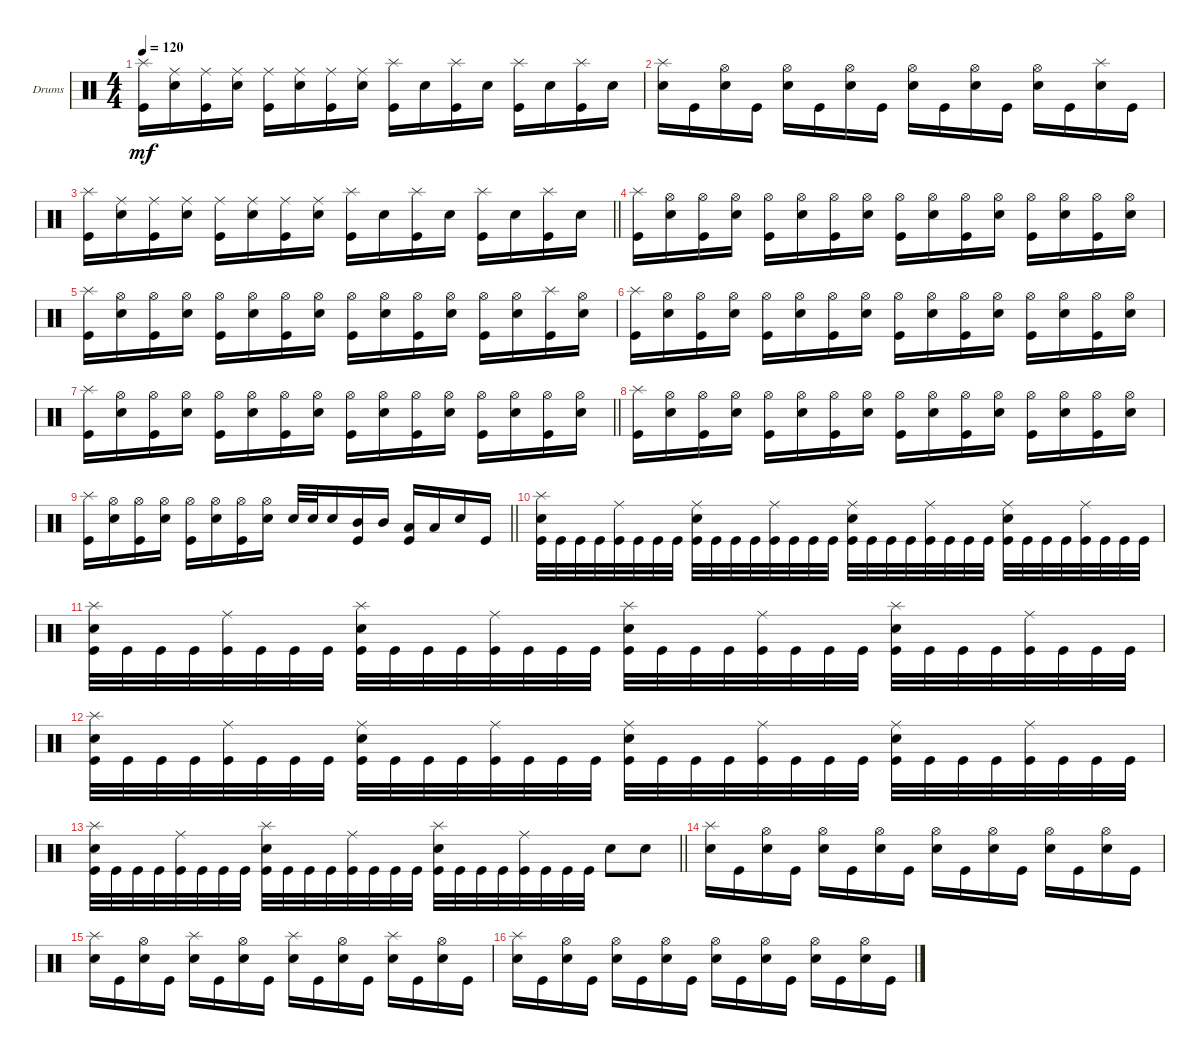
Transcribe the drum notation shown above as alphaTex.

\defaultSystemsLayout 4
\bracketExtendMode groupsimilarinstruments
\firstSystemTrackNameOrientation horizontal
\otherSystemsTrackNameOrientation horizontal
\track ("Drumkit" "Drums") {instrument percussion}
\staff {score}
\articulation defaults
\ts (4 4)
\tempo 120
\clef neutral
\ks c
("Kick (hit)" "Splash (hit)").16{dy mf} ("Snare (hit) 2" "Ride (middle)").16 ("Kick (hit)" "Ride (middle)").16 ("Snare (hit) 2" "Ride (middle)").16 ("Kick (hit)" "Ride (middle)").16 ("Snare (hit) 2" "Ride (middle)").16 ("Kick (hit)" "Ride (middle)").16 ("Snare (hit) 2" "Ride (middle)").16 ("Kick (hit)" "Splash (hit)").16 "Snare (hit) 2".16 ("Kick (hit)" "Splash (hit)").16 "Snare (hit) 2".16 ("Kick (hit)" "Splash (hit)").16 "Snare (hit) 2".16 ("Kick (hit)" "Splash (hit)").16 "Snare (hit) 2".16 |
("Snare (hit) 2" "Splash (hit)").16 "Kick (hit)".16 ("Snare (hit) 2" "Hi-Hat (open)").16 "Kick (hit)".16 ("Snare (hit) 2" "Hi-Hat (open)").16 "Kick (hit)".16 ("Snare (hit) 2" "Hi-Hat (open)").16 "Kick (hit)".16 ("Snare (hit) 2" "Hi-Hat (open)").16 "Kick (hit)".16 ("Snare (hit) 2" "Hi-Hat (open)").16 "Kick (hit)".16 ("Snare (hit) 2" "Hi-Hat (open)").16 "Kick (hit)".16 ("Snare (hit) 2" "Splash (hit)").16 "Kick (hit)".16 |
\barLineRight lightlight
("Kick (hit)" "Splash (hit)").16 ("Snare (hit) 2" "Ride (middle)").16 ("Kick (hit)" "Ride (middle)").16 ("Snare (hit) 2" "Ride (middle)").16 ("Kick (hit)" "Ride (middle)").16 ("Snare (hit) 2" "Ride (middle)").16 ("Kick (hit)" "Ride (middle)").16 ("Snare (hit) 2" "Ride (middle)").16 ("Kick (hit)" "Splash (hit)").16 "Snare (hit) 2".16 ("Kick (hit)" "Splash (hit)").16 "Snare (hit) 2".16 ("Kick (hit)" "Splash (hit)").16 "Snare (hit) 2".16 ("Kick (hit)" "Splash (hit)").16 "Snare (hit) 2".16 |
("Kick (hit)" "Splash (hit)").16 ("Snare (hit) 2" "Hi-Hat (open)").16 ("Kick (hit)" "Hi-Hat (open)").16 ("Snare (hit) 2" "Hi-Hat (open)").16 ("Kick (hit)" "Hi-Hat (open)").16 ("Snare (hit) 2" "Hi-Hat (open)").16 ("Kick (hit)" "Hi-Hat (open)").16 ("Snare (hit) 2" "Hi-Hat (open)").16 ("Kick (hit)" "Hi-Hat (open)").16 ("Snare (hit) 2" "Hi-Hat (open)").16 ("Kick (hit)" "Hi-Hat (open)").16 ("Snare (hit) 2" "Hi-Hat (open)").16 ("Kick (hit)" "Hi-Hat (open)").16 ("Snare (hit) 2" "Hi-Hat (open)").16 ("Kick (hit)" "Hi-Hat (open)").16 ("Snare (hit) 2" "Hi-Hat (open)").16 |
("Kick (hit)" "Splash (hit)").16 ("Snare (hit) 2" "Hi-Hat (open)").16 ("Kick (hit)" "Hi-Hat (open)").16 ("Snare (hit) 2" "Hi-Hat (open)").16 ("Kick (hit)" "Hi-Hat (open)").16 ("Snare (hit) 2" "Hi-Hat (open)").16 ("Kick (hit)" "Hi-Hat (open)").16 ("Snare (hit) 2" "Hi-Hat (open)").16 ("Kick (hit)" "Hi-Hat (open)").16 ("Snare (hit) 2" "Hi-Hat (open)").16 ("Kick (hit)" "Hi-Hat (open)").16 ("Snare (hit) 2" "Hi-Hat (open)").16 ("Kick (hit)" "Hi-Hat (open)").16 ("Snare (hit) 2" "Hi-Hat (open)").16 ("Kick (hit)" "Splash (hit)").16 ("Snare (hit) 2" "Hi-Hat (open)").16 |
("Kick (hit)" "Splash (hit)").16 ("Snare (hit) 2" "Hi-Hat (open)").16 ("Kick (hit)" "Hi-Hat (open)").16 ("Snare (hit) 2" "Hi-Hat (open)").16 ("Kick (hit)" "Hi-Hat (open)").16 ("Snare (hit) 2" "Hi-Hat (open)").16 ("Kick (hit)" "Hi-Hat (open)").16 ("Snare (hit) 2" "Hi-Hat (open)").16 ("Kick (hit)" "Hi-Hat (open)").16 ("Snare (hit) 2" "Hi-Hat (open)").16 ("Kick (hit)" "Hi-Hat (open)").16 ("Snare (hit) 2" "Hi-Hat (open)").16 ("Kick (hit)" "Hi-Hat (open)").16 ("Snare (hit) 2" "Hi-Hat (open)").16 ("Kick (hit)" "Hi-Hat (open)").16 ("Snare (hit) 2" "Hi-Hat (open)").16 |
\barLineRight lightlight
("Kick (hit)" "Splash (hit)").16 ("Snare (hit) 2" "Hi-Hat (open)").16 ("Kick (hit)" "Hi-Hat (open)").16 ("Snare (hit) 2" "Hi-Hat (open)").16 ("Kick (hit)" "Hi-Hat (open)").16 ("Snare (hit) 2" "Hi-Hat (open)").16 ("Kick (hit)" "Hi-Hat (open)").16 ("Snare (hit) 2" "Hi-Hat (open)").16 ("Kick (hit)" "Hi-Hat (open)").16 ("Snare (hit) 2" "Hi-Hat (open)").16 ("Kick (hit)" "Hi-Hat (open)").16 ("Snare (hit) 2" "Hi-Hat (open)").16 ("Kick (hit)" "Hi-Hat (open)").16 ("Snare (hit) 2" "Hi-Hat (open)").16 ("Kick (hit)" "Hi-Hat (open)").16 ("Snare (hit) 2" "Hi-Hat (open)").16 |
("Kick (hit)" "Splash (hit)").16 ("Snare (hit) 2" "Hi-Hat (open)").16 ("Kick (hit)" "Hi-Hat (open)").16 ("Snare (hit) 2" "Hi-Hat (open)").16 ("Kick (hit)" "Hi-Hat (open)").16 ("Snare (hit) 2" "Hi-Hat (open)").16 ("Kick (hit)" "Hi-Hat (open)").16 ("Snare (hit) 2" "Hi-Hat (open)").16 ("Kick (hit)" "Hi-Hat (open)").16 ("Snare (hit) 2" "Hi-Hat (open)").16 ("Kick (hit)" "Hi-Hat (open)").16 ("Snare (hit) 2" "Hi-Hat (open)").16 ("Kick (hit)" "Hi-Hat (open)").16 ("Snare (hit) 2" "Hi-Hat (open)").16 ("Kick (hit)" "Hi-Hat (open)").16 ("Snare (hit) 2" "Hi-Hat (open)").16 |
\barLineRight lightlight
("Kick (hit)" "Splash (hit)").16 ("Snare (hit) 2" "Hi-Hat (open)").16 ("Kick (hit)" "Hi-Hat (open)").16 ("Snare (hit) 2" "Hi-Hat (open)").16 ("Kick (hit)" "Hi-Hat (open)").16 ("Snare (hit) 2" "Hi-Hat (open)").16 ("Kick (hit)" "Hi-Hat (open)").16 ("Snare (hit) 2" "Hi-Hat (open)").16 "Snare (hit) 2".32 "Snare (hit) 2".32 "Snare (hit) 2".16 ("Mid Tom (hit)" "Kick (hit)").16 "Mid Tom (hit)".16 ("Low Tom (hit)" "Kick (hit)").16 "Low Tom (hit)".16 "Snare (hit) 2".16 "Kick (hit)".16 |
("Kick (hit)" "Snare (hit) 2" "Splash (hit)").32 "Kick (hit)".32 "Kick (hit)".32 "Kick (hit)".32 ("Kick (hit)" "Ride (middle)").32 "Kick (hit)".32 "Kick (hit)".32 "Kick (hit)".32 ("Kick (hit)" "Snare (hit) 2" "Ride (middle)").32 "Kick (hit)".32 "Kick (hit)".32 "Kick (hit)".32 ("Kick (hit)" "Ride (middle)").32 "Kick (hit)".32 "Kick (hit)".32 "Kick (hit)".32 ("Kick (hit)" "Snare (hit) 2" "Ride (middle)").32 "Kick (hit)".32 "Kick (hit)".32 "Kick (hit)".32 ("Kick (hit)" "Ride (middle)").32 "Kick (hit)".32 "Kick (hit)".32 "Kick (hit)".32 ("Kick (hit)" "Snare (hit) 2" "Ride (middle)").32 "Kick (hit)".32 "Kick (hit)".32 "Kick (hit)".32 ("Kick (hit)" "Ride (middle)").32 "Kick (hit)".32 "Kick (hit)".32 "Kick (hit)".32 |
("Kick (hit)" "Snare (hit) 2" "Splash (hit)").32 "Kick (hit)".32 "Kick (hit)".32 "Kick (hit)".32 ("Kick (hit)" "Ride (middle)").32 "Kick (hit)".32 "Kick (hit)".32 "Kick (hit)".32 ("Kick (hit)" "Snare (hit) 2" "Splash (hit)").32 "Kick (hit)".32 "Kick (hit)".32 "Kick (hit)".32 ("Kick (hit)" "Ride (middle)").32 "Kick (hit)".32 "Kick (hit)".32 "Kick (hit)".32 ("Kick (hit)" "Snare (hit) 2" "Splash (hit)").32 "Kick (hit)".32 "Kick (hit)".32 "Kick (hit)".32 ("Kick (hit)" "Ride (middle)").32 "Kick (hit)".32 "Kick (hit)".32 "Kick (hit)".32 ("Kick (hit)" "Snare (hit) 2" "Splash (hit)").32 "Kick (hit)".32 "Kick (hit)".32 "Kick (hit)".32 ("Kick (hit)" "Ride (middle)").32 "Kick (hit)".32 "Kick (hit)".32 "Kick (hit)".32 |
("Kick (hit)" "Snare (hit) 2" "Splash (hit)").32 "Kick (hit)".32 "Kick (hit)".32 "Kick (hit)".32 ("Kick (hit)" "Ride (middle)").32 "Kick (hit)".32 "Kick (hit)".32 "Kick (hit)".32 ("Kick (hit)" "Snare (hit) 2" "Ride (middle)").32 "Kick (hit)".32 "Kick (hit)".32 "Kick (hit)".32 ("Kick (hit)" "Ride (middle)").32 "Kick (hit)".32 "Kick (hit)".32 "Kick (hit)".32 ("Kick (hit)" "Snare (hit) 2" "Ride (middle)").32 "Kick (hit)".32 "Kick (hit)".32 "Kick (hit)".32 ("Kick (hit)" "Ride (middle)").32 "Kick (hit)".32 "Kick (hit)".32 "Kick (hit)".32 ("Kick (hit)" "Snare (hit) 2" "Ride (middle)").32 "Kick (hit)".32 "Kick (hit)".32 "Kick (hit)".32 ("Kick (hit)" "Ride (middle)").32 "Kick (hit)".32 "Kick (hit)".32 "Kick (hit)".32 |
\barLineRight lightlight
("Kick (hit)" "Snare (hit) 2" "Splash (hit)").32 "Kick (hit)".32 "Kick (hit)".32 "Kick (hit)".32 ("Kick (hit)" "Ride (middle)").32 "Kick (hit)".32 "Kick (hit)".32 "Kick (hit)".32 ("Kick (hit)" "Snare (hit) 2" "Splash (hit)").32 "Kick (hit)".32 "Kick (hit)".32 "Kick (hit)".32 ("Kick (hit)" "Ride (middle)").32 "Kick (hit)".32 "Kick (hit)".32 "Kick (hit)".32 ("Kick (hit)" "Snare (hit) 2" "Splash (hit)").32 "Kick (hit)".32 "Kick (hit)".32 "Kick (hit)".32 ("Kick (hit)" "Ride (middle)").32 "Kick (hit)".32 "Kick (hit)".32 "Kick (hit)".32 "Snare (hit) 2".8 "Snare (hit) 2".8 |
("Snare (hit) 2" "Splash (hit)").16 "Kick (hit)".16 ("Snare (hit) 2" "Hi-Hat (open)").16 "Kick (hit)".16 ("Snare (hit) 2" "Hi-Hat (open)").16 "Kick (hit)".16 ("Snare (hit) 2" "Hi-Hat (open)").16 "Kick (hit)".16 ("Snare (hit) 2" "Hi-Hat (open)").16 "Kick (hit)".16 ("Snare (hit) 2" "Hi-Hat (open)").16 "Kick (hit)".16 ("Snare (hit) 2" "Hi-Hat (open)").16 "Kick (hit)".16 ("Snare (hit) 2" "Hi-Hat (open)").16 "Kick (hit)".16 |
("Snare (hit) 2" "Splash (hit)").16 "Kick (hit)".16 ("Snare (hit) 2" "Hi-Hat (open)").16 "Kick (hit)".16 ("Snare (hit) 2" "Splash (hit)").16 "Kick (hit)".16 ("Snare (hit) 2" "Hi-Hat (open)").16 "Kick (hit)".16 ("Snare (hit) 2" "Splash (hit)").16 "Kick (hit)".16 ("Snare (hit) 2" "Hi-Hat (open)").16 "Kick (hit)".16 ("Snare (hit) 2" "Splash (hit)").16 "Kick (hit)".16 ("Snare (hit) 2" "Hi-Hat (open)").16 "Kick (hit)".16 |
("Snare (hit) 2" "Splash (hit)").16 "Kick (hit)".16 ("Snare (hit) 2" "Hi-Hat (open)").16 "Kick (hit)".16 ("Snare (hit) 2" "Hi-Hat (open)").16 "Kick (hit)".16 ("Snare (hit) 2" "Hi-Hat (open)").16 "Kick (hit)".16 ("Snare (hit) 2" "Hi-Hat (open)").16 "Kick (hit)".16 ("Snare (hit) 2" "Hi-Hat (open)").16 "Kick (hit)".16 ("Snare (hit) 2" "Hi-Hat (open)").16 "Kick (hit)".16 ("Snare (hit) 2" "Hi-Hat (open)").16 "Kick (hit)".16
